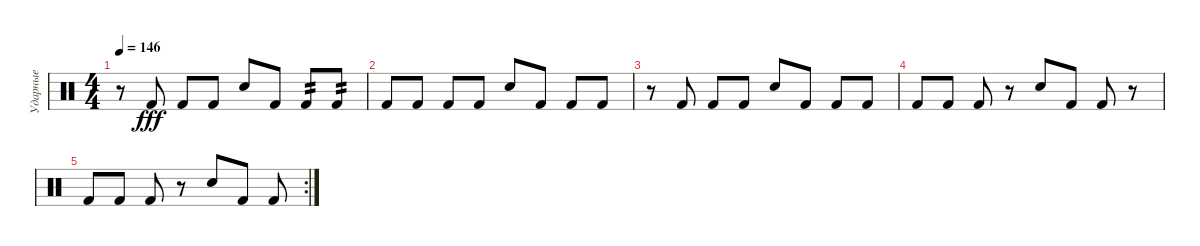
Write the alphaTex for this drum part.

\track ("Ударные" "Ударные") {instrument percussion}
\staff {score}
\articulation defaults
\ts (4 4)
\tempo 146
\clef neutral
\ks c
r.8{dy fff} "Kick (hit) 2".8 "Kick (hit) 2".8 "Kick (hit) 2".8 "Snare (hit) 2".8 "Kick (hit) 2".8 "Kick (hit) 2".8{tp 2} "Kick (hit) 2".8{tp 2} |
"Kick (hit) 2".8 "Kick (hit) 2".8 "Kick (hit) 2".8 "Kick (hit) 2".8 "Snare (hit) 2".8 "Kick (hit) 2".8 "Kick (hit) 2".8 "Kick (hit) 2".8 |
r.8 "Kick (hit) 2".8 "Kick (hit) 2".8 "Kick (hit) 2".8 "Snare (hit) 2".8 "Kick (hit) 2".8 "Kick (hit) 2".8 "Kick (hit) 2".8 |
"Kick (hit) 2".8 "Kick (hit) 2".8 "Kick (hit) 2".8 r.8 "Snare (hit) 2".8 "Kick (hit) 2".8 "Kick (hit) 2".8 r.8 |
\rc 2 "Kick (hit) 2".8 "Kick (hit) 2".8 "Kick (hit) 2".8
r.8 "Snare (hit) 2".8 "Kick (hit) 2".8 "Kick (hit) 2".8
